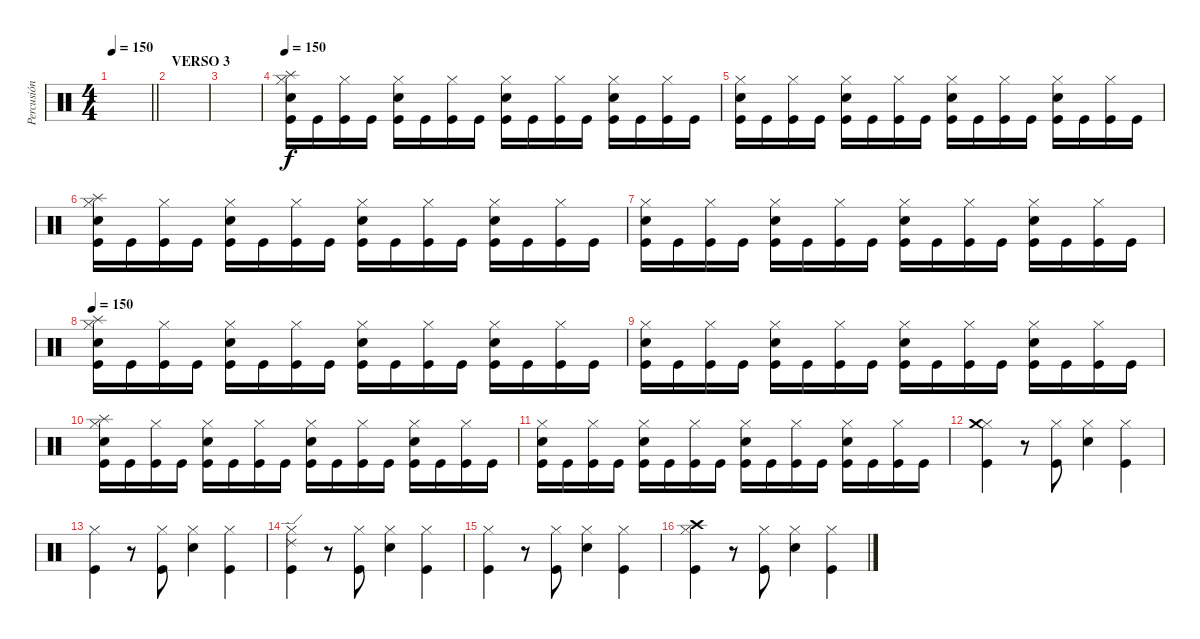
\track ("Percusión" "Percusión") {instrument percussion}
\staff {score}
\articulation defaults
\ts (4 4)
\tempo 150
\clef neutral
\barLineRight lightlight
\ks c
|
\section ("" "VERSO 3")
|
|
\tempo 150
("Hi-Hat (closed)" "Splash (hit)" "Snare (hit) 2" "Kick (hit)").16 "Kick (hit)".16 ("Hi-Hat (closed)" "Kick (hit)").16 "Kick (hit)".16 ("Hi-Hat (closed)" "Snare (hit) 2" "Kick (hit)").16 "Kick (hit)".16 ("Hi-Hat (closed)" "Kick (hit)").16 "Kick (hit)".16 ("Hi-Hat (closed)" "Snare (hit) 2" "Kick (hit)").16 "Kick (hit)".16 ("Hi-Hat (closed)" "Kick (hit)").16 "Kick (hit)".16 ("Hi-Hat (closed)" "Snare (hit) 2" "Kick (hit)").16 "Kick (hit)".16 ("Hi-Hat (closed)" "Kick (hit)").16 "Kick (hit)".16 |
("Hi-Hat (closed)" "Snare (hit) 2" "Kick (hit)").16 "Kick (hit)".16 ("Hi-Hat (closed)" "Kick (hit)").16 "Kick (hit)".16 ("Hi-Hat (closed)" "Snare (hit) 2" "Kick (hit)").16 "Kick (hit)".16 ("Hi-Hat (closed)" "Kick (hit)").16 "Kick (hit)".16 ("Hi-Hat (closed)" "Snare (hit) 2" "Kick (hit)").16 "Kick (hit)".16 ("Hi-Hat (closed)" "Kick (hit)").16 "Kick (hit)".16 ("Hi-Hat (closed)" "Snare (hit) 2" "Kick (hit)").16 "Kick (hit)".16 ("Hi-Hat (closed)" "Kick (hit)").16 "Kick (hit)".16 |
("Hi-Hat (closed)" "Splash (hit)" "Snare (hit) 2" "Kick (hit)").16 "Kick (hit)".16 ("Hi-Hat (closed)" "Kick (hit)").16 "Kick (hit)".16 ("Hi-Hat (closed)" "Snare (hit) 2" "Kick (hit)").16 "Kick (hit)".16 ("Hi-Hat (closed)" "Kick (hit)").16 "Kick (hit)".16 ("Hi-Hat (closed)" "Snare (hit) 2" "Kick (hit)").16 "Kick (hit)".16 ("Hi-Hat (closed)" "Kick (hit)").16 "Kick (hit)".16 ("Hi-Hat (closed)" "Snare (hit) 2" "Kick (hit)").16 "Kick (hit)".16 ("Hi-Hat (closed)" "Kick (hit)").16 "Kick (hit)".16 |
("Hi-Hat (closed)" "Snare (hit) 2" "Kick (hit)").16 "Kick (hit)".16 ("Hi-Hat (closed)" "Kick (hit)").16 "Kick (hit)".16 ("Hi-Hat (closed)" "Snare (hit) 2" "Kick (hit)").16 "Kick (hit)".16 ("Hi-Hat (closed)" "Kick (hit)").16 "Kick (hit)".16 ("Hi-Hat (closed)" "Snare (hit) 2" "Kick (hit)").16 "Kick (hit)".16 ("Hi-Hat (closed)" "Kick (hit)").16 "Kick (hit)".16 ("Hi-Hat (closed)" "Snare (hit) 2" "Kick (hit)").16 "Kick (hit)".16 ("Hi-Hat (closed)" "Kick (hit)").16 "Kick (hit)".16 |
\tempo 150
("Hi-Hat (closed)" "Splash (hit)" "Snare (hit) 2" "Kick (hit)").16 "Kick (hit)".16 ("Hi-Hat (closed)" "Kick (hit)").16 "Kick (hit)".16 ("Hi-Hat (closed)" "Snare (hit) 2" "Kick (hit)").16 "Kick (hit)".16 ("Hi-Hat (closed)" "Kick (hit)").16 "Kick (hit)".16 ("Hi-Hat (closed)" "Snare (hit) 2" "Kick (hit)").16 "Kick (hit)".16 ("Hi-Hat (closed)" "Kick (hit)").16 "Kick (hit)".16 ("Hi-Hat (closed)" "Snare (hit) 2" "Kick (hit)").16 "Kick (hit)".16 ("Hi-Hat (closed)" "Kick (hit)").16 "Kick (hit)".16 |
("Hi-Hat (closed)" "Snare (hit) 2" "Kick (hit)").16 "Kick (hit)".16 ("Hi-Hat (closed)" "Kick (hit)").16 "Kick (hit)".16 ("Hi-Hat (closed)" "Snare (hit) 2" "Kick (hit)").16 "Kick (hit)".16 ("Hi-Hat (closed)" "Kick (hit)").16 "Kick (hit)".16 ("Hi-Hat (closed)" "Snare (hit) 2" "Kick (hit)").16 "Kick (hit)".16 ("Hi-Hat (closed)" "Kick (hit)").16 "Kick (hit)".16 ("Hi-Hat (closed)" "Snare (hit) 2" "Kick (hit)").16 "Kick (hit)".16 ("Hi-Hat (closed)" "Kick (hit)").16 "Kick (hit)".16 |
("Hi-Hat (closed)" "Splash (hit)" "Snare (hit) 2" "Kick (hit)").16 "Kick (hit)".16 ("Hi-Hat (closed)" "Kick (hit)").16 "Kick (hit)".16 ("Hi-Hat (closed)" "Snare (hit) 2" "Kick (hit)").16 "Kick (hit)".16 ("Hi-Hat (closed)" "Kick (hit)").16 "Kick (hit)".16 ("Hi-Hat (closed)" "Snare (hit) 2" "Kick (hit)").16 "Kick (hit)".16 ("Hi-Hat (closed)" "Kick (hit)").16 "Kick (hit)".16 ("Hi-Hat (closed)" "Snare (hit) 2" "Kick (hit)").16 "Kick (hit)".16 ("Hi-Hat (closed)" "Kick (hit)").16 "Kick (hit)".16 |
("Hi-Hat (closed)" "Snare (hit) 2" "Kick (hit)").16 "Kick (hit)".16 ("Hi-Hat (closed)" "Kick (hit)").16 "Kick (hit)".16 ("Hi-Hat (closed)" "Snare (hit) 2" "Kick (hit)").16 "Kick (hit)".16 ("Hi-Hat (closed)" "Kick (hit)").16 "Kick (hit)".16 ("Hi-Hat (closed)" "Snare (hit) 2" "Kick (hit)").16 "Kick (hit)".16 ("Hi-Hat (closed)" "Kick (hit)").16 "Kick (hit)".16 ("Hi-Hat (closed)" "Snare (hit) 2" "Kick (hit)").16 "Kick (hit)".16 ("Hi-Hat (closed)" "Kick (hit)").16 "Kick (hit)".16 |
("Hi-Hat (closed)" "Crash medium (hit)" "Kick (hit)").4 r.8 ("Hi-Hat (closed)" "Kick (hit)").8 ("Hi-Hat (closed)" "Snare (hit) 2").4 ("Hi-Hat (closed)" "Kick (hit)").4 |
("Hi-Hat (closed)" "Kick (hit)").4 r.8 ("Hi-Hat (closed)" "Kick (hit)").8 ("Hi-Hat (closed)" "Snare (hit) 2").4 ("Hi-Hat (closed)" "Kick (hit)").4 |
("Hi-Hat (closed)" "Ride (edge) 2" "Kick (hit)").4 r.8 ("Hi-Hat (closed)" "Kick (hit)").8 ("Hi-Hat (closed)" "Snare (hit) 2").4 ("Hi-Hat (closed)" "Kick (hit)").4 |
("Hi-Hat (closed)" "Kick (hit)").4 r.8 ("Hi-Hat (closed)" "Kick (hit)").8 ("Hi-Hat (closed)" "Snare (hit) 2").4 ("Hi-Hat (closed)" "Kick (hit)").4 |
("Hi-Hat (closed)" "Crash high (hit)" "Kick (hit)").4 r.8 ("Hi-Hat (closed)" "Kick (hit)").8 ("Hi-Hat (closed)" "Snare (hit) 2").4 ("Hi-Hat (closed)" "Kick (hit)").4
